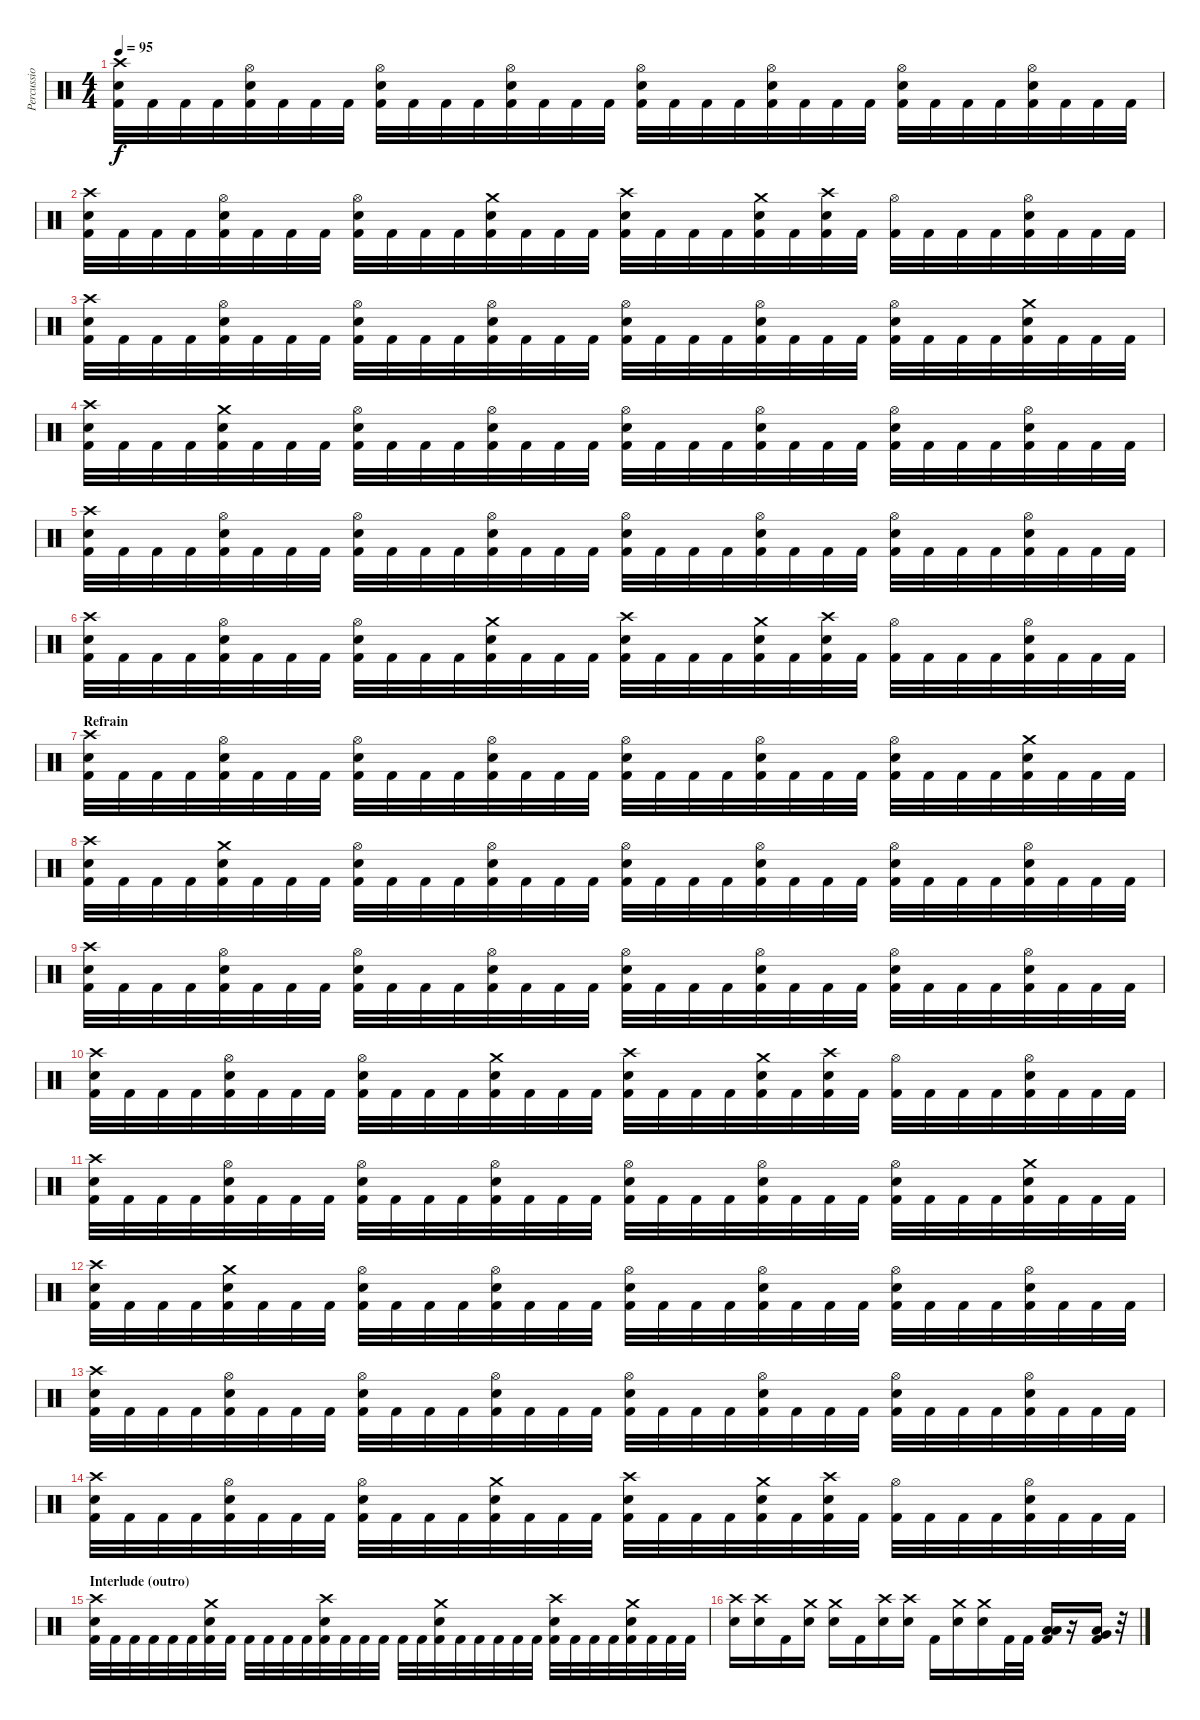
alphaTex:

\track (" Percussions" " Percussio") {instrument percussion}
\staff {score}
\articulation defaults
\ts (4 4)
\tempo 95
\clef neutral
\ks c
("Crash high (hit)" "Electric Snare (hit)" "Kick (hit) 2").32{dy f} "Kick (hit) 2".32 "Kick (hit) 2".32 "Kick (hit) 2".32 ("Hi-Hat (open)" "Electric Snare (hit)" "Kick (hit) 2").32 "Kick (hit) 2".32 "Kick (hit) 2".32 "Kick (hit) 2".32 ("Hi-Hat (open)" "Electric Snare (hit)" "Kick (hit) 2").32 "Kick (hit) 2".32 "Kick (hit) 2".32 "Kick (hit) 2".32 ("Hi-Hat (open)" "Electric Snare (hit)" "Kick (hit) 2").32 "Kick (hit) 2".32 "Kick (hit) 2".32 "Kick (hit) 2".32 ("Hi-Hat (open)" "Electric Snare (hit)" "Kick (hit) 2").32 "Kick (hit) 2".32 "Kick (hit) 2".32 "Kick (hit) 2".32 ("Hi-Hat (open)" "Electric Snare (hit)" "Kick (hit) 2").32 "Kick (hit) 2".32 "Kick (hit) 2".32 "Kick (hit) 2".32 ("Hi-Hat (open)" "Electric Snare (hit)" "Kick (hit) 2").32 "Kick (hit) 2".32 "Kick (hit) 2".32 "Kick (hit) 2".32 ("Hi-Hat (open)" "Electric Snare (hit)" "Kick (hit) 2").32 "Kick (hit) 2".32 "Kick (hit) 2".32 "Kick (hit) 2".32 |
("Crash high (hit)" "Electric Snare (hit)" "Kick (hit) 2").32 "Kick (hit) 2".32 "Kick (hit) 2".32 "Kick (hit) 2".32 ("Hi-Hat (open)" "Electric Snare (hit)" "Kick (hit) 2").32 "Kick (hit) 2".32 "Kick (hit) 2".32 "Kick (hit) 2".32 ("Hi-Hat (open)" "Electric Snare (hit)" "Kick (hit) 2").32 "Kick (hit) 2".32 "Kick (hit) 2".32 "Kick (hit) 2".32 ("Crash medium (hit)" "Electric Snare (hit)" "Kick (hit) 2").32 "Kick (hit) 2".32 "Kick (hit) 2".32 "Kick (hit) 2".32 ("Crash high (hit)" "Electric Snare (hit)" "Kick (hit) 2").32 "Kick (hit) 2".32 "Kick (hit) 2".32 "Kick (hit) 2".32 ("Crash medium (hit)" "Electric Snare (hit)" "Kick (hit) 2").32 "Kick (hit) 2".32 ("Crash high (hit)" "Electric Snare (hit)" "Kick (hit) 2").32 "Kick (hit) 2".32 ("Hi-Hat (open)" "Kick (hit) 2").32 "Kick (hit) 2".32 "Kick (hit) 2".32 "Kick (hit) 2".32 ("Hi-Hat (open)" "Electric Snare (hit)" "Kick (hit) 2").32 "Kick (hit) 2".32 "Kick (hit) 2".32 "Kick (hit) 2".32 |
("Crash high (hit)" "Electric Snare (hit)" "Kick (hit) 2").32 "Kick (hit) 2".32 "Kick (hit) 2".32 "Kick (hit) 2".32 ("Hi-Hat (open)" "Electric Snare (hit)" "Kick (hit) 2").32 "Kick (hit) 2".32 "Kick (hit) 2".32 "Kick (hit) 2".32 ("Hi-Hat (open)" "Electric Snare (hit)" "Kick (hit) 2").32 "Kick (hit) 2".32 "Kick (hit) 2".32 "Kick (hit) 2".32 ("Hi-Hat (open)" "Electric Snare (hit)" "Kick (hit) 2").32 "Kick (hit) 2".32 "Kick (hit) 2".32 "Kick (hit) 2".32 ("Hi-Hat (open)" "Electric Snare (hit)" "Kick (hit) 2").32 "Kick (hit) 2".32 "Kick (hit) 2".32 "Kick (hit) 2".32 ("Hi-Hat (open)" "Electric Snare (hit)" "Kick (hit) 2").32 "Kick (hit) 2".32 "Kick (hit) 2".32 "Kick (hit) 2".32 ("Hi-Hat (open)" "Electric Snare (hit)" "Kick (hit) 2").32 "Kick (hit) 2".32 "Kick (hit) 2".32 "Kick (hit) 2".32 ("Crash medium (hit)" "Electric Snare (hit)" "Kick (hit) 2").32 "Kick (hit) 2".32 "Kick (hit) 2".32 "Kick (hit) 2".32 |
("Crash high (hit)" "Electric Snare (hit)" "Kick (hit) 2").32 "Kick (hit) 2".32 "Kick (hit) 2".32 "Kick (hit) 2".32 ("Crash medium (hit)" "Electric Snare (hit)" "Kick (hit) 2").32 "Kick (hit) 2".32 "Kick (hit) 2".32 "Kick (hit) 2".32 ("Hi-Hat (open)" "Electric Snare (hit)" "Kick (hit) 2").32 "Kick (hit) 2".32 "Kick (hit) 2".32 "Kick (hit) 2".32 ("Hi-Hat (open)" "Electric Snare (hit)" "Kick (hit) 2").32 "Kick (hit) 2".32 "Kick (hit) 2".32 "Kick (hit) 2".32 ("Hi-Hat (open)" "Electric Snare (hit)" "Kick (hit) 2").32 "Kick (hit) 2".32 "Kick (hit) 2".32 "Kick (hit) 2".32 ("Hi-Hat (open)" "Electric Snare (hit)" "Kick (hit) 2").32 "Kick (hit) 2".32 "Kick (hit) 2".32 "Kick (hit) 2".32 ("Hi-Hat (open)" "Electric Snare (hit)" "Kick (hit) 2").32 "Kick (hit) 2".32 "Kick (hit) 2".32 "Kick (hit) 2".32 ("Hi-Hat (open)" "Electric Snare (hit)" "Kick (hit) 2").32 "Kick (hit) 2".32 "Kick (hit) 2".32 "Kick (hit) 2".32 |
("Crash high (hit)" "Electric Snare (hit)" "Kick (hit) 2").32 "Kick (hit) 2".32 "Kick (hit) 2".32 "Kick (hit) 2".32 ("Hi-Hat (open)" "Electric Snare (hit)" "Kick (hit) 2").32 "Kick (hit) 2".32 "Kick (hit) 2".32 "Kick (hit) 2".32 ("Hi-Hat (open)" "Electric Snare (hit)" "Kick (hit) 2").32 "Kick (hit) 2".32 "Kick (hit) 2".32 "Kick (hit) 2".32 ("Hi-Hat (open)" "Electric Snare (hit)" "Kick (hit) 2").32 "Kick (hit) 2".32 "Kick (hit) 2".32 "Kick (hit) 2".32 ("Hi-Hat (open)" "Electric Snare (hit)" "Kick (hit) 2").32 "Kick (hit) 2".32 "Kick (hit) 2".32 "Kick (hit) 2".32 ("Hi-Hat (open)" "Electric Snare (hit)" "Kick (hit) 2").32 "Kick (hit) 2".32 "Kick (hit) 2".32 "Kick (hit) 2".32 ("Hi-Hat (open)" "Electric Snare (hit)" "Kick (hit) 2").32 "Kick (hit) 2".32 "Kick (hit) 2".32 "Kick (hit) 2".32 ("Hi-Hat (open)" "Electric Snare (hit)" "Kick (hit) 2").32 "Kick (hit) 2".32 "Kick (hit) 2".32 "Kick (hit) 2".32 |
("Crash high (hit)" "Electric Snare (hit)" "Kick (hit) 2").32 "Kick (hit) 2".32 "Kick (hit) 2".32 "Kick (hit) 2".32 ("Hi-Hat (open)" "Electric Snare (hit)" "Kick (hit) 2").32 "Kick (hit) 2".32 "Kick (hit) 2".32 "Kick (hit) 2".32 ("Hi-Hat (open)" "Electric Snare (hit)" "Kick (hit) 2").32 "Kick (hit) 2".32 "Kick (hit) 2".32 "Kick (hit) 2".32 ("Crash medium (hit)" "Electric Snare (hit)" "Kick (hit) 2").32 "Kick (hit) 2".32 "Kick (hit) 2".32 "Kick (hit) 2".32 ("Crash high (hit)" "Electric Snare (hit)" "Kick (hit) 2").32 "Kick (hit) 2".32 "Kick (hit) 2".32 "Kick (hit) 2".32 ("Crash medium (hit)" "Electric Snare (hit)" "Kick (hit) 2").32 "Kick (hit) 2".32 ("Crash high (hit)" "Electric Snare (hit)" "Kick (hit) 2").32 "Kick (hit) 2".32 ("Hi-Hat (open)" "Kick (hit) 2").32 "Kick (hit) 2".32 "Kick (hit) 2".32 "Kick (hit) 2".32 ("Hi-Hat (open)" "Electric Snare (hit)" "Kick (hit) 2").32 "Kick (hit) 2".32 "Kick (hit) 2".32 "Kick (hit) 2".32 |
\section ("" "Refrain")
("Crash high (hit)" "Electric Snare (hit)" "Kick (hit) 2").32 "Kick (hit) 2".32 "Kick (hit) 2".32 "Kick (hit) 2".32 ("Hi-Hat (open)" "Electric Snare (hit)" "Kick (hit) 2").32 "Kick (hit) 2".32 "Kick (hit) 2".32 "Kick (hit) 2".32 ("Hi-Hat (open)" "Electric Snare (hit)" "Kick (hit) 2").32 "Kick (hit) 2".32 "Kick (hit) 2".32 "Kick (hit) 2".32 ("Hi-Hat (open)" "Electric Snare (hit)" "Kick (hit) 2").32 "Kick (hit) 2".32 "Kick (hit) 2".32 "Kick (hit) 2".32 ("Hi-Hat (open)" "Electric Snare (hit)" "Kick (hit) 2").32 "Kick (hit) 2".32 "Kick (hit) 2".32 "Kick (hit) 2".32 ("Hi-Hat (open)" "Electric Snare (hit)" "Kick (hit) 2").32 "Kick (hit) 2".32 "Kick (hit) 2".32 "Kick (hit) 2".32 ("Hi-Hat (open)" "Electric Snare (hit)" "Kick (hit) 2").32 "Kick (hit) 2".32 "Kick (hit) 2".32 "Kick (hit) 2".32 ("Crash medium (hit)" "Electric Snare (hit)" "Kick (hit) 2").32 "Kick (hit) 2".32 "Kick (hit) 2".32 "Kick (hit) 2".32 |
("Crash high (hit)" "Electric Snare (hit)" "Kick (hit) 2").32 "Kick (hit) 2".32 "Kick (hit) 2".32 "Kick (hit) 2".32 ("Crash medium (hit)" "Electric Snare (hit)" "Kick (hit) 2").32 "Kick (hit) 2".32 "Kick (hit) 2".32 "Kick (hit) 2".32 ("Hi-Hat (open)" "Electric Snare (hit)" "Kick (hit) 2").32 "Kick (hit) 2".32 "Kick (hit) 2".32 "Kick (hit) 2".32 ("Hi-Hat (open)" "Electric Snare (hit)" "Kick (hit) 2").32 "Kick (hit) 2".32 "Kick (hit) 2".32 "Kick (hit) 2".32 ("Hi-Hat (open)" "Electric Snare (hit)" "Kick (hit) 2").32 "Kick (hit) 2".32 "Kick (hit) 2".32 "Kick (hit) 2".32 ("Hi-Hat (open)" "Electric Snare (hit)" "Kick (hit) 2").32 "Kick (hit) 2".32 "Kick (hit) 2".32 "Kick (hit) 2".32 ("Hi-Hat (open)" "Electric Snare (hit)" "Kick (hit) 2").32 "Kick (hit) 2".32 "Kick (hit) 2".32 "Kick (hit) 2".32 ("Hi-Hat (open)" "Electric Snare (hit)" "Kick (hit) 2").32 "Kick (hit) 2".32 "Kick (hit) 2".32 "Kick (hit) 2".32 |
("Crash high (hit)" "Electric Snare (hit)" "Kick (hit) 2").32 "Kick (hit) 2".32 "Kick (hit) 2".32 "Kick (hit) 2".32 ("Hi-Hat (open)" "Electric Snare (hit)" "Kick (hit) 2").32 "Kick (hit) 2".32 "Kick (hit) 2".32 "Kick (hit) 2".32 ("Hi-Hat (open)" "Electric Snare (hit)" "Kick (hit) 2").32 "Kick (hit) 2".32 "Kick (hit) 2".32 "Kick (hit) 2".32 ("Hi-Hat (open)" "Electric Snare (hit)" "Kick (hit) 2").32 "Kick (hit) 2".32 "Kick (hit) 2".32 "Kick (hit) 2".32 ("Hi-Hat (open)" "Electric Snare (hit)" "Kick (hit) 2").32 "Kick (hit) 2".32 "Kick (hit) 2".32 "Kick (hit) 2".32 ("Hi-Hat (open)" "Electric Snare (hit)" "Kick (hit) 2").32 "Kick (hit) 2".32 "Kick (hit) 2".32 "Kick (hit) 2".32 ("Hi-Hat (open)" "Electric Snare (hit)" "Kick (hit) 2").32 "Kick (hit) 2".32 "Kick (hit) 2".32 "Kick (hit) 2".32 ("Hi-Hat (open)" "Electric Snare (hit)" "Kick (hit) 2").32 "Kick (hit) 2".32 "Kick (hit) 2".32 "Kick (hit) 2".32 |
("Crash high (hit)" "Electric Snare (hit)" "Kick (hit) 2").32 "Kick (hit) 2".32 "Kick (hit) 2".32 "Kick (hit) 2".32 ("Hi-Hat (open)" "Electric Snare (hit)" "Kick (hit) 2").32 "Kick (hit) 2".32 "Kick (hit) 2".32 "Kick (hit) 2".32 ("Hi-Hat (open)" "Electric Snare (hit)" "Kick (hit) 2").32 "Kick (hit) 2".32 "Kick (hit) 2".32 "Kick (hit) 2".32 ("Crash medium (hit)" "Electric Snare (hit)" "Kick (hit) 2").32 "Kick (hit) 2".32 "Kick (hit) 2".32 "Kick (hit) 2".32 ("Crash high (hit)" "Electric Snare (hit)" "Kick (hit) 2").32 "Kick (hit) 2".32 "Kick (hit) 2".32 "Kick (hit) 2".32 ("Crash medium (hit)" "Electric Snare (hit)" "Kick (hit) 2").32 "Kick (hit) 2".32 ("Crash high (hit)" "Electric Snare (hit)" "Kick (hit) 2").32 "Kick (hit) 2".32 ("Hi-Hat (open)" "Kick (hit) 2").32 "Kick (hit) 2".32 "Kick (hit) 2".32 "Kick (hit) 2".32 ("Hi-Hat (open)" "Electric Snare (hit)" "Kick (hit) 2").32 "Kick (hit) 2".32 "Kick (hit) 2".32 "Kick (hit) 2".32 |
("Crash high (hit)" "Electric Snare (hit)" "Kick (hit) 2").32 "Kick (hit) 2".32 "Kick (hit) 2".32 "Kick (hit) 2".32 ("Hi-Hat (open)" "Electric Snare (hit)" "Kick (hit) 2").32 "Kick (hit) 2".32 "Kick (hit) 2".32 "Kick (hit) 2".32 ("Hi-Hat (open)" "Electric Snare (hit)" "Kick (hit) 2").32 "Kick (hit) 2".32 "Kick (hit) 2".32 "Kick (hit) 2".32 ("Hi-Hat (open)" "Electric Snare (hit)" "Kick (hit) 2").32 "Kick (hit) 2".32 "Kick (hit) 2".32 "Kick (hit) 2".32 ("Hi-Hat (open)" "Electric Snare (hit)" "Kick (hit) 2").32 "Kick (hit) 2".32 "Kick (hit) 2".32 "Kick (hit) 2".32 ("Hi-Hat (open)" "Electric Snare (hit)" "Kick (hit) 2").32 "Kick (hit) 2".32 "Kick (hit) 2".32 "Kick (hit) 2".32 ("Hi-Hat (open)" "Electric Snare (hit)" "Kick (hit) 2").32 "Kick (hit) 2".32 "Kick (hit) 2".32 "Kick (hit) 2".32 ("Crash medium (hit)" "Electric Snare (hit)" "Kick (hit) 2").32 "Kick (hit) 2".32 "Kick (hit) 2".32 "Kick (hit) 2".32 |
("Crash high (hit)" "Electric Snare (hit)" "Kick (hit) 2").32 "Kick (hit) 2".32 "Kick (hit) 2".32 "Kick (hit) 2".32 ("Crash medium (hit)" "Electric Snare (hit)" "Kick (hit) 2").32 "Kick (hit) 2".32 "Kick (hit) 2".32 "Kick (hit) 2".32 ("Hi-Hat (open)" "Electric Snare (hit)" "Kick (hit) 2").32 "Kick (hit) 2".32 "Kick (hit) 2".32 "Kick (hit) 2".32 ("Hi-Hat (open)" "Electric Snare (hit)" "Kick (hit) 2").32 "Kick (hit) 2".32 "Kick (hit) 2".32 "Kick (hit) 2".32 ("Hi-Hat (open)" "Electric Snare (hit)" "Kick (hit) 2").32 "Kick (hit) 2".32 "Kick (hit) 2".32 "Kick (hit) 2".32 ("Hi-Hat (open)" "Electric Snare (hit)" "Kick (hit) 2").32 "Kick (hit) 2".32 "Kick (hit) 2".32 "Kick (hit) 2".32 ("Hi-Hat (open)" "Electric Snare (hit)" "Kick (hit) 2").32 "Kick (hit) 2".32 "Kick (hit) 2".32 "Kick (hit) 2".32 ("Hi-Hat (open)" "Electric Snare (hit)" "Kick (hit) 2").32 "Kick (hit) 2".32 "Kick (hit) 2".32 "Kick (hit) 2".32 |
("Crash high (hit)" "Electric Snare (hit)" "Kick (hit) 2").32 "Kick (hit) 2".32 "Kick (hit) 2".32 "Kick (hit) 2".32 ("Hi-Hat (open)" "Electric Snare (hit)" "Kick (hit) 2").32 "Kick (hit) 2".32 "Kick (hit) 2".32 "Kick (hit) 2".32 ("Hi-Hat (open)" "Electric Snare (hit)" "Kick (hit) 2").32 "Kick (hit) 2".32 "Kick (hit) 2".32 "Kick (hit) 2".32 ("Hi-Hat (open)" "Electric Snare (hit)" "Kick (hit) 2").32 "Kick (hit) 2".32 "Kick (hit) 2".32 "Kick (hit) 2".32 ("Hi-Hat (open)" "Electric Snare (hit)" "Kick (hit) 2").32 "Kick (hit) 2".32 "Kick (hit) 2".32 "Kick (hit) 2".32 ("Hi-Hat (open)" "Electric Snare (hit)" "Kick (hit) 2").32 "Kick (hit) 2".32 "Kick (hit) 2".32 "Kick (hit) 2".32 ("Hi-Hat (open)" "Electric Snare (hit)" "Kick (hit) 2").32 "Kick (hit) 2".32 "Kick (hit) 2".32 "Kick (hit) 2".32 ("Hi-Hat (open)" "Electric Snare (hit)" "Kick (hit) 2").32 "Kick (hit) 2".32 "Kick (hit) 2".32 "Kick (hit) 2".32 |
("Crash high (hit)" "Electric Snare (hit)" "Kick (hit) 2").32 "Kick (hit) 2".32 "Kick (hit) 2".32 "Kick (hit) 2".32 ("Hi-Hat (open)" "Electric Snare (hit)" "Kick (hit) 2").32 "Kick (hit) 2".32 "Kick (hit) 2".32 "Kick (hit) 2".32 ("Hi-Hat (open)" "Electric Snare (hit)" "Kick (hit) 2").32 "Kick (hit) 2".32 "Kick (hit) 2".32 "Kick (hit) 2".32 ("Crash medium (hit)" "Electric Snare (hit)" "Kick (hit) 2").32 "Kick (hit) 2".32 "Kick (hit) 2".32 "Kick (hit) 2".32 ("Crash high (hit)" "Electric Snare (hit)" "Kick (hit) 2").32 "Kick (hit) 2".32 "Kick (hit) 2".32 "Kick (hit) 2".32 ("Crash medium (hit)" "Electric Snare (hit)" "Kick (hit) 2").32 "Kick (hit) 2".32 ("Crash high (hit)" "Electric Snare (hit)" "Kick (hit) 2").32 "Kick (hit) 2".32 ("Hi-Hat (open)" "Kick (hit) 2").32 "Kick (hit) 2".32 "Kick (hit) 2".32 "Kick (hit) 2".32 ("Hi-Hat (open)" "Electric Snare (hit)" "Kick (hit) 2").32 "Kick (hit) 2".32 "Kick (hit) 2".32 "Kick (hit) 2".32 |
\section ("" "Interlude (outro)")
("Crash high (hit)" "Electric Snare (hit)" "Kick (hit) 2").32 "Kick (hit) 2".32 "Kick (hit) 2".32 "Kick (hit) 2".32 "Kick (hit) 2".32 "Kick (hit) 2".32 ("Crash medium (hit)" "Electric Snare (hit)" "Kick (hit) 2").32 "Kick (hit) 2".32 "Kick (hit) 2".32 "Kick (hit) 2".32 "Kick (hit) 2".32 "Kick (hit) 2".32 ("Crash high (hit)" "Electric Snare (hit)" "Kick (hit) 2").32 "Kick (hit) 2".32 "Kick (hit) 2".32 "Kick (hit) 2".32 "Kick (hit) 2".32 "Kick (hit) 2".32 ("Crash medium (hit)" "Electric Snare (hit)" "Kick (hit) 2").32 "Kick (hit) 2".32 "Kick (hit) 2".32 "Kick (hit) 2".32 "Kick (hit) 2".32 "Kick (hit) 2".32 ("Crash high (hit)" "Electric Snare (hit)" "Kick (hit) 2").32 "Kick (hit) 2".32 "Kick (hit) 2".32 "Kick (hit) 2".32 ("Crash medium (hit)" "Electric Snare (hit)" "Kick (hit) 2").32 "Kick (hit) 2".32 "Kick (hit) 2".32 "Kick (hit) 2".32 |
("Crash high (hit)" "Electric Snare (hit)").16 ("Crash high (hit)" "Electric Snare (hit)").16 "Kick (hit) 2".16 ("Crash medium (hit)" "Electric Snare (hit)").16 ("Crash medium (hit)" "Electric Snare (hit)").16 "Kick (hit) 2".16 ("Crash high (hit)" "Electric Snare (hit)").16 ("Crash high (hit)" "Electric Snare (hit)").16 "Kick (hit) 2".16 ("Crash medium (hit)" "Electric Snare (hit)").16 ("Crash medium (hit)" "Electric Snare (hit)").16 "Kick (hit) 2".32 "Kick (hit) 2".32 ("Low Tom (hit)" "Low Floor Tom (hit)" "Kick (hit) 2").16 r.16 ("Very Low Tom (hit)" "Low Floor Tom (hit)" "Kick (hit) 2").16 r.32
